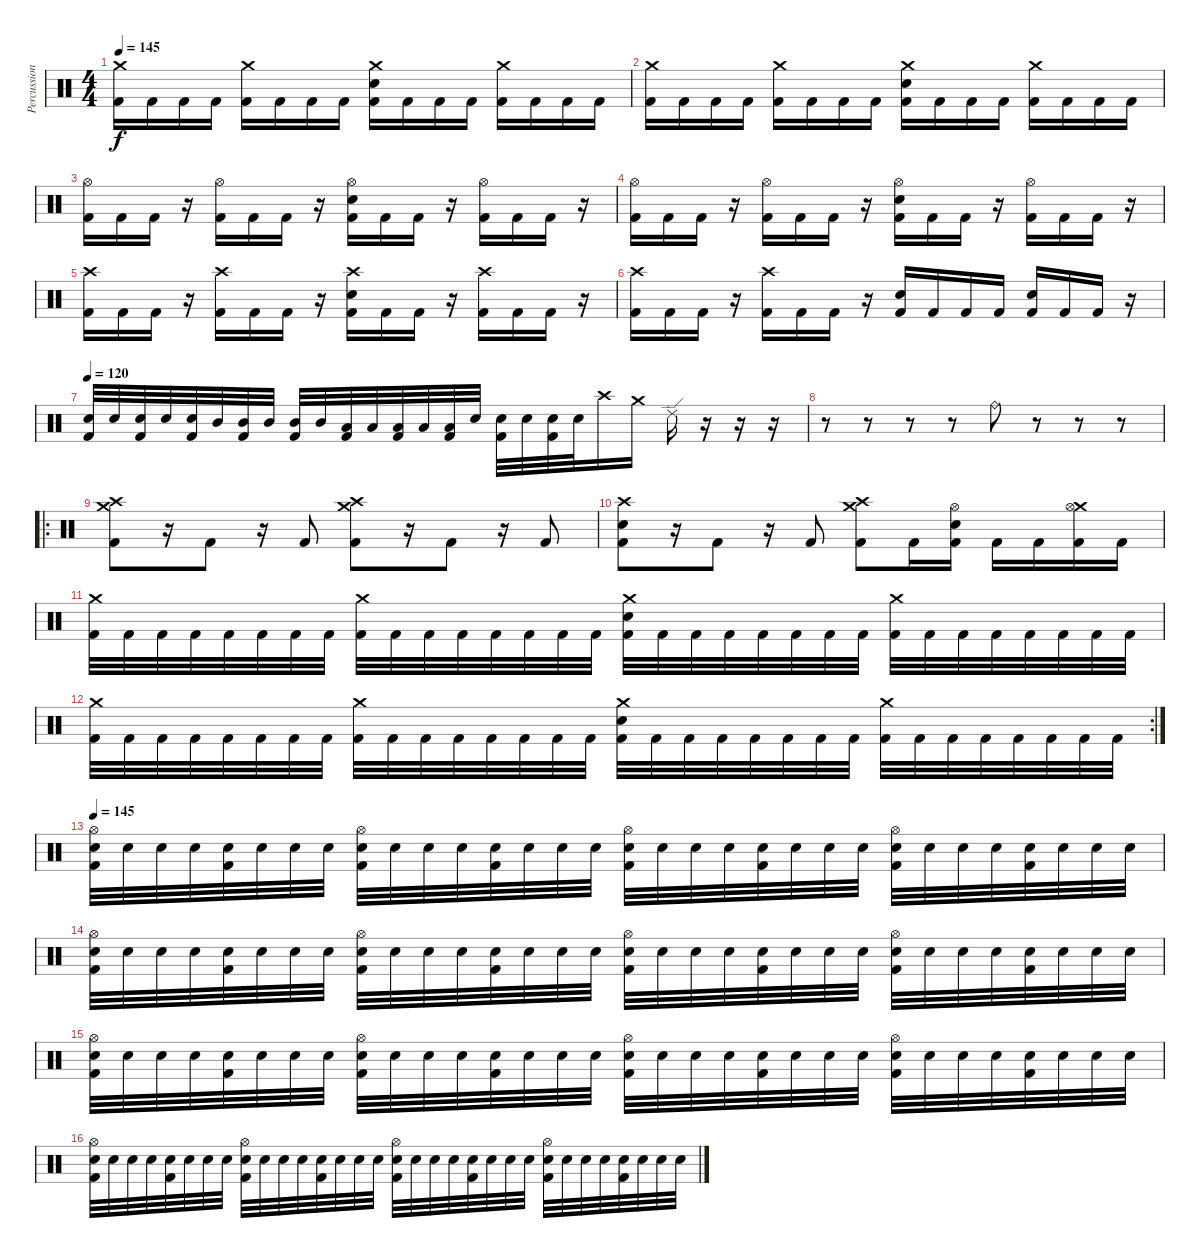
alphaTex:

\track ("Percussion" "Percussion") {instrument percussion}
\staff {score}
\articulation defaults
\ts (4 4)
\tempo 145
\clef neutral
\ks c
("Crash medium (hit)" "Kick (hit) 2").16{dy f} "Kick (hit) 2".16 "Kick (hit) 2".16 "Kick (hit) 2".16 ("Crash medium (hit)" "Kick (hit) 2").16 "Kick (hit) 2".16 "Kick (hit) 2".16 "Kick (hit) 2".16 ("Crash medium (hit)" "Electric Snare (hit)" "Kick (hit) 2").16 "Kick (hit) 2".16 "Kick (hit) 2".16 "Kick (hit) 2".16 ("Crash medium (hit)" "Kick (hit) 2").16 "Kick (hit) 2".16 "Kick (hit) 2".16 "Kick (hit) 2".16 |
("Crash medium (hit)" "Kick (hit) 2").16 "Kick (hit) 2".16 "Kick (hit) 2".16 "Kick (hit) 2".16 ("Crash medium (hit)" "Kick (hit) 2").16 "Kick (hit) 2".16 "Kick (hit) 2".16 "Kick (hit) 2".16 ("Crash medium (hit)" "Electric Snare (hit)" "Kick (hit) 2").16 "Kick (hit) 2".16 "Kick (hit) 2".16 "Kick (hit) 2".16 ("Crash medium (hit)" "Kick (hit) 2").16 "Kick (hit) 2".16 "Kick (hit) 2".16 "Kick (hit) 2".16 |
("Hi-Hat (open)" "Kick (hit) 2").16 "Kick (hit) 2".16 "Kick (hit) 2".16 r.16 ("Hi-Hat (open)" "Kick (hit) 2").16 "Kick (hit) 2".16 "Kick (hit) 2".16 r.16 ("Hi-Hat (open)" "Electric Snare (hit)" "Kick (hit) 2").16 "Kick (hit) 2".16 "Kick (hit) 2".16 r.16 ("Hi-Hat (open)" "Kick (hit) 2").16 "Kick (hit) 2".16 "Kick (hit) 2".16 r.16 |
("Hi-Hat (open)" "Kick (hit) 2").16 "Kick (hit) 2".16 "Kick (hit) 2".16 r.16 ("Hi-Hat (open)" "Kick (hit) 2").16 "Kick (hit) 2".16 "Kick (hit) 2".16 r.16 ("Hi-Hat (open)" "Electric Snare (hit)" "Kick (hit) 2").16 "Kick (hit) 2".16 "Kick (hit) 2".16 r.16 ("Hi-Hat (open)" "Kick (hit) 2").16 "Kick (hit) 2".16 "Kick (hit) 2".16 r.16 |
("Crash high (hit)" "Kick (hit) 2").16 "Kick (hit) 2".16 "Kick (hit) 2".16 r.16 ("Crash high (hit)" "Kick (hit) 2").16 "Kick (hit) 2".16 "Kick (hit) 2".16 r.16 ("Crash high (hit)" "Electric Snare (hit)" "Kick (hit) 2").16 "Kick (hit) 2".16 "Kick (hit) 2".16 r.16 ("Crash high (hit)" "Kick (hit) 2").16 "Kick (hit) 2".16 "Kick (hit) 2".16 r.16 |
("Crash high (hit)" "Kick (hit) 2").16 "Kick (hit) 2".16 "Kick (hit) 2".16 r.16 ("Crash high (hit)" "Kick (hit) 2").16 "Kick (hit) 2".16 "Kick (hit) 2".16 r.16 ("Electric Snare (hit)" "Kick (hit) 2").16 "Kick (hit) 2".16 "Kick (hit) 2".16 "Kick (hit) 2".16 ("Electric Snare (hit)" "Kick (hit) 2").16 "Kick (hit) 2".16 "Kick (hit) 2".16 r.16 |
\tempo 120
("Electric Snare (hit)" "Kick (hit) 2").32 "Electric Snare (hit)".32 ("Electric Snare (hit)" "Kick (hit) 2").32 "Electric Snare (hit)".32 ("Electric Snare (hit)" "Kick (hit) 2").32 "Mid Tom (hit)".32 ("Mid Tom (hit)" "Kick (hit) 2").32 "Mid Tom (hit)".32 ("Mid Tom (hit)" "Kick (hit) 2").32 "Mid Tom (hit)".32 ("Low Tom (hit)" "Kick (hit) 2").32 "Low Tom (hit)".32 ("Low Tom (hit)" "Kick (hit) 2").32 "Low Tom (hit)".32 ("Low Tom (hit)" "Kick (hit) 2").32 "Electric Snare (hit)".32 ("Electric Snare (hit)" "Kick (hit) 2").32 "Electric Snare (hit)".32 ("Electric Snare (hit)" "Kick (hit) 2").32 "Electric Snare (hit)".32 "Crash high (hit)".16 "Crash medium (hit)".16 "Ride (edge) 2".16 r.16 r.16 r.16 |
r.8 r.8 r.8 r.8 "Ride (bell)".8 r.8 r.8 r.8 |
\ro
("Crash high (hit)" "Crash medium (hit)" "Kick (hit) 2").8 r.16 "Kick (hit) 2".8 r.16 "Kick (hit) 2".8 ("Crash high (hit)" "Crash medium (hit)" "Kick (hit) 2").8 r.16 "Kick (hit) 2".8 r.16 "Kick (hit) 2".8 |
("Crash high (hit)" "Electric Snare (hit)" "Kick (hit) 2").8 r.16 "Kick (hit) 2".8 r.16 "Kick (hit) 2".8 ("Crash high (hit)" "Crash medium (hit)" "Kick (hit) 2").8 "Kick (hit) 2".16 ("Hi-Hat (open)" "Electric Snare (hit)" "Kick (hit) 2").16 "Kick (hit) 2".16 "Kick (hit) 2".16 ("Crash medium (hit)" "Hi-Hat (open)" "Kick (hit) 2").16 "Kick (hit) 2".16 |
("Crash medium (hit)" "Kick (hit) 2").32 "Kick (hit) 2".32 "Kick (hit) 2".32 "Kick (hit) 2".32 "Kick (hit) 2".32 "Kick (hit) 2".32 "Kick (hit) 2".32 "Kick (hit) 2".32 ("Crash medium (hit)" "Kick (hit) 2").32 "Kick (hit) 2".32 "Kick (hit) 2".32 "Kick (hit) 2".32 "Kick (hit) 2".32 "Kick (hit) 2".32 "Kick (hit) 2".32 "Kick (hit) 2".32 ("Crash medium (hit)" "Electric Snare (hit)" "Kick (hit) 2").32 "Kick (hit) 2".32 "Kick (hit) 2".32 "Kick (hit) 2".32 "Kick (hit) 2".32 "Kick (hit) 2".32 "Kick (hit) 2".32 "Kick (hit) 2".32 ("Crash medium (hit)" "Kick (hit) 2").32 "Kick (hit) 2".32 "Kick (hit) 2".32 "Kick (hit) 2".32 "Kick (hit) 2".32 "Kick (hit) 2".32 "Kick (hit) 2".32 "Kick (hit) 2".32 |
\rc 2
("Crash medium (hit)" "Kick (hit) 2").32 "Kick (hit) 2".32 "Kick (hit) 2".32 "Kick (hit) 2".32 "Kick (hit) 2".32 "Kick (hit) 2".32 "Kick (hit) 2".32 "Kick (hit) 2".32 ("Crash medium (hit)" "Kick (hit) 2").32 "Kick (hit) 2".32 "Kick (hit) 2".32 "Kick (hit) 2".32 "Kick (hit) 2".32 "Kick (hit) 2".32 "Kick (hit) 2".32 "Kick (hit) 2".32 ("Crash medium (hit)" "Electric Snare (hit)" "Kick (hit) 2").32 "Kick (hit) 2".32 "Kick (hit) 2".32 "Kick (hit) 2".32 "Kick (hit) 2".32 "Kick (hit) 2".32 "Kick (hit) 2".32 "Kick (hit) 2".32 ("Crash medium (hit)" "Kick (hit) 2").32 "Kick (hit) 2".32 "Kick (hit) 2".32 "Kick (hit) 2".32 "Kick (hit) 2".32 "Kick (hit) 2".32 "Kick (hit) 2".32 "Kick (hit) 2".32 |
\tempo 145
("Hi-Hat (open)" "Electric Snare (hit)" "Kick (hit) 2").32 "Electric Snare (hit)".32 "Electric Snare (hit)".32 "Electric Snare (hit)".32 ("Electric Snare (hit)" "Kick (hit) 2").32 "Electric Snare (hit)".32 "Electric Snare (hit)".32 "Electric Snare (hit)".32 ("Hi-Hat (open)" "Electric Snare (hit)" "Kick (hit) 2").32 "Electric Snare (hit)".32 "Electric Snare (hit)".32 "Electric Snare (hit)".32 ("Electric Snare (hit)" "Kick (hit) 2").32 "Electric Snare (hit)".32 "Electric Snare (hit)".32 "Electric Snare (hit)".32 ("Hi-Hat (open)" "Electric Snare (hit)" "Kick (hit) 2").32 "Electric Snare (hit)".32 "Electric Snare (hit)".32 "Electric Snare (hit)".32 ("Electric Snare (hit)" "Kick (hit) 2").32 "Electric Snare (hit)".32 "Electric Snare (hit)".32 "Electric Snare (hit)".32 ("Hi-Hat (open)" "Electric Snare (hit)" "Kick (hit) 2").32 "Electric Snare (hit)".32 "Electric Snare (hit)".32 "Electric Snare (hit)".32 ("Electric Snare (hit)" "Kick (hit) 2").32 "Electric Snare (hit)".32 "Electric Snare (hit)".32 "Electric Snare (hit)".32 |
("Hi-Hat (open)" "Electric Snare (hit)" "Kick (hit) 2").32 "Electric Snare (hit)".32 "Electric Snare (hit)".32 "Electric Snare (hit)".32 ("Electric Snare (hit)" "Kick (hit) 2").32 "Electric Snare (hit)".32 "Electric Snare (hit)".32 "Electric Snare (hit)".32 ("Hi-Hat (open)" "Electric Snare (hit)" "Kick (hit) 2").32 "Electric Snare (hit)".32 "Electric Snare (hit)".32 "Electric Snare (hit)".32 ("Electric Snare (hit)" "Kick (hit) 2").32 "Electric Snare (hit)".32 "Electric Snare (hit)".32 "Electric Snare (hit)".32 ("Hi-Hat (open)" "Electric Snare (hit)" "Kick (hit) 2").32 "Electric Snare (hit)".32 "Electric Snare (hit)".32 "Electric Snare (hit)".32 ("Electric Snare (hit)" "Kick (hit) 2").32 "Electric Snare (hit)".32 "Electric Snare (hit)".32 "Electric Snare (hit)".32 ("Hi-Hat (open)" "Electric Snare (hit)" "Kick (hit) 2").32 "Electric Snare (hit)".32 "Electric Snare (hit)".32 "Electric Snare (hit)".32 ("Electric Snare (hit)" "Kick (hit) 2").32 "Electric Snare (hit)".32 "Electric Snare (hit)".32 "Electric Snare (hit)".32 |
("Hi-Hat (open)" "Electric Snare (hit)" "Kick (hit) 2").32 "Electric Snare (hit)".32 "Electric Snare (hit)".32 "Electric Snare (hit)".32 ("Electric Snare (hit)" "Kick (hit) 2").32 "Electric Snare (hit)".32 "Electric Snare (hit)".32 "Electric Snare (hit)".32 ("Hi-Hat (open)" "Electric Snare (hit)" "Kick (hit) 2").32 "Electric Snare (hit)".32 "Electric Snare (hit)".32 "Electric Snare (hit)".32 ("Electric Snare (hit)" "Kick (hit) 2").32 "Electric Snare (hit)".32 "Electric Snare (hit)".32 "Electric Snare (hit)".32 ("Hi-Hat (open)" "Electric Snare (hit)" "Kick (hit) 2").32 "Electric Snare (hit)".32 "Electric Snare (hit)".32 "Electric Snare (hit)".32 ("Electric Snare (hit)" "Kick (hit) 2").32 "Electric Snare (hit)".32 "Electric Snare (hit)".32 "Electric Snare (hit)".32 ("Hi-Hat (open)" "Electric Snare (hit)" "Kick (hit) 2").32 "Electric Snare (hit)".32 "Electric Snare (hit)".32 "Electric Snare (hit)".32 ("Electric Snare (hit)" "Kick (hit) 2").32 "Electric Snare (hit)".32 "Electric Snare (hit)".32 "Electric Snare (hit)".32 |
("Hi-Hat (open)" "Electric Snare (hit)" "Kick (hit) 2").32 "Electric Snare (hit)".32 "Electric Snare (hit)".32 "Electric Snare (hit)".32 ("Electric Snare (hit)" "Kick (hit) 2").32 "Electric Snare (hit)".32 "Electric Snare (hit)".32 "Electric Snare (hit)".32 ("Hi-Hat (open)" "Electric Snare (hit)" "Kick (hit) 2").32 "Electric Snare (hit)".32 "Electric Snare (hit)".32 "Electric Snare (hit)".32 ("Electric Snare (hit)" "Kick (hit) 2").32 "Electric Snare (hit)".32 "Electric Snare (hit)".32 "Electric Snare (hit)".32 ("Hi-Hat (open)" "Electric Snare (hit)" "Kick (hit) 2").32 "Electric Snare (hit)".32 "Electric Snare (hit)".32 "Electric Snare (hit)".32 ("Electric Snare (hit)" "Kick (hit) 2").32 "Electric Snare (hit)".32 "Electric Snare (hit)".32 "Electric Snare (hit)".32 ("Hi-Hat (open)" "Electric Snare (hit)" "Kick (hit) 2").32 "Electric Snare (hit)".32 "Electric Snare (hit)".32 "Electric Snare (hit)".32 ("Electric Snare (hit)" "Kick (hit) 2").32 "Electric Snare (hit)".32 "Electric Snare (hit)".32 "Electric Snare (hit)".32
